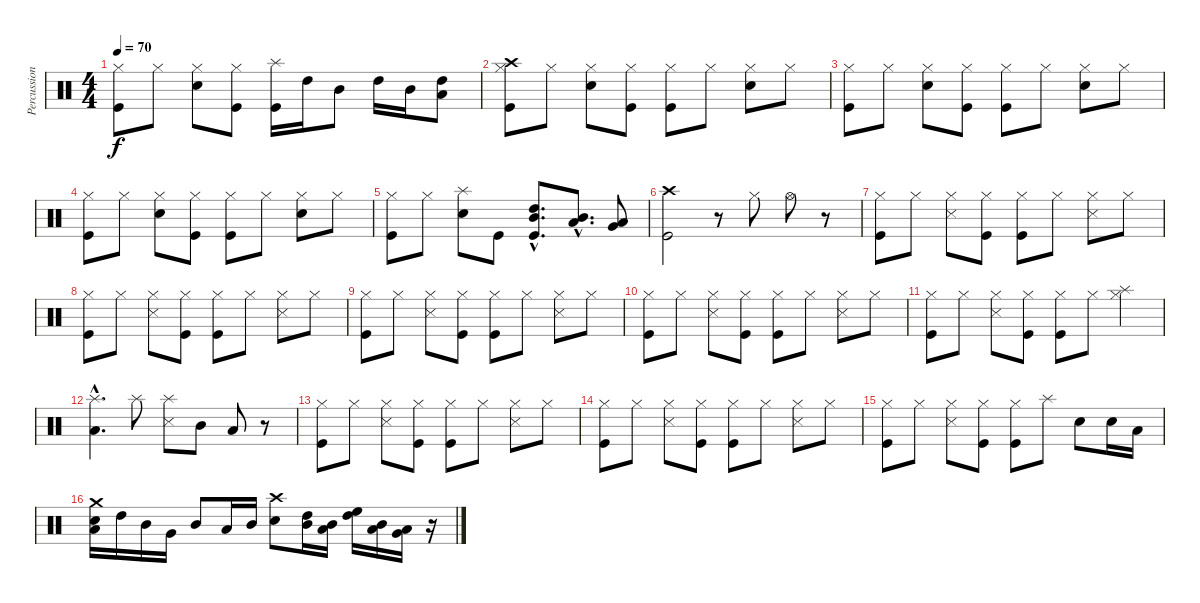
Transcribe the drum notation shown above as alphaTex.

\track ("Percussions" "Percussion") {instrument percussion}
\staff {score}
\articulation defaults
\ts (4 4)
\tempo 70
\clef neutral
\ks c
("Kick (hit)" "Hi-Hat (closed)").8{dy f} "Hi-Hat (closed)".8 ("Snare (hit) 2" "Hi-Hat (closed)").8 ("Kick (hit)" "Hi-Hat (closed)").8 ("Kick (hit)" "Splash (hit)").16 "High Tom (hit)".16 "Mid Tom (hit)".8 "High Tom (hit)".16 "Mid Tom (hit)".16 ("Low Tom (hit)" "High Tom (hit)").8 |
("Kick (hit)" "Hi-Hat (closed)" "Crash high (hit)").8 "Hi-Hat (closed)".8 ("Snare (hit) 2" "Hi-Hat (closed)").8 ("Kick (hit)" "Hi-Hat (closed)").8 ("Kick (hit)" "Hi-Hat (closed)").8 "Hi-Hat (closed)".8 ("Snare (hit) 2" "Hi-Hat (closed)").8 "Hi-Hat (closed)".8 |
("Kick (hit)" "Hi-Hat (closed)").8 "Hi-Hat (closed)".8 ("Snare (hit) 2" "Hi-Hat (closed)").8 ("Kick (hit)" "Hi-Hat (closed)").8 ("Kick (hit)" "Hi-Hat (closed)").8 "Hi-Hat (closed)".8 ("Snare (hit) 2" "Hi-Hat (closed)").8 "Hi-Hat (closed)".8 |
("Kick (hit)" "Hi-Hat (closed)").8 "Hi-Hat (closed)".8 ("Snare (hit) 2" "Hi-Hat (closed)").8 ("Kick (hit)" "Hi-Hat (closed)").8 ("Kick (hit)" "Hi-Hat (closed)").8 "Hi-Hat (closed)".8 ("Snare (hit) 2" "Hi-Hat (closed)").8 "Hi-Hat (closed)".8 |
("Kick (hit)" "Hi-Hat (closed)").8 "Hi-Hat (closed)".8 ("Snare (hit) 2" "Splash (hit)").8 "Kick (hit)".8 ("Kick (hit)"{hac} "Mid Tom (hit)"{hac} "High Tom (hit)"{hac}).8{d} ("Low Tom (hit)"{hac} "Mid Tom (hit)"{hac}).8{d} ("Low Floor Tom (hit)" "Very Low Tom (hit)").8 |
("Kick (hit)" "Crash high (hit)").2 r.8 "Hi-Hat (closed)".8 "Hi-Hat (open)".8 r.8 |
("Kick (hit)" "Hi-Hat (closed)").8 "Hi-Hat (closed)".8 ("Snare (side stick) 3" "Hi-Hat (closed)").8 ("Kick (hit)" "Hi-Hat (closed)").8 ("Kick (hit)" "Hi-Hat (closed)").8 "Hi-Hat (closed)".8 ("Snare (side stick) 3" "Hi-Hat (closed)").8 "Hi-Hat (closed)".8 |
("Kick (hit)" "Hi-Hat (closed)").8 "Hi-Hat (closed)".8 ("Snare (side stick) 3" "Hi-Hat (closed)").8 ("Kick (hit)" "Hi-Hat (closed)").8 ("Kick (hit)" "Hi-Hat (closed)").8 "Hi-Hat (closed)".8 ("Snare (side stick) 3" "Hi-Hat (closed)").8 "Hi-Hat (closed)".8 |
("Kick (hit)" "Hi-Hat (closed)").8 "Hi-Hat (closed)".8 ("Snare (side stick) 3" "Hi-Hat (closed)").8 ("Kick (hit)" "Hi-Hat (closed)").8 ("Kick (hit)" "Hi-Hat (closed)").8 "Hi-Hat (closed)".8 ("Snare (side stick) 3" "Hi-Hat (closed)").8 "Hi-Hat (closed)".8 |
("Kick (hit)" "Hi-Hat (closed)").8 "Hi-Hat (closed)".8 ("Snare (side stick) 3" "Hi-Hat (closed)").8 ("Kick (hit)" "Hi-Hat (closed)").8 ("Kick (hit)" "Hi-Hat (closed)").8 "Hi-Hat (closed)".8 ("Snare (side stick) 3" "Hi-Hat (closed)").8 "Hi-Hat (closed)".8 |
("Kick (hit)" "Hi-Hat (closed)").8 "Hi-Hat (closed)".8 ("Snare (side stick) 3" "Hi-Hat (closed)").8 ("Kick (hit)" "Hi-Hat (closed)").8 ("Kick (hit)" "Hi-Hat (closed)").8 "Hi-Hat (closed)".8 ("Hi-Hat (closed)" "Splash (hit)").4 |
("Low Floor Tom (hit)"{hac} "Splash (hit)"{hac}).4{d volume 6} "Splash (hit)".8{volume 16} ("Snare (side stick) 3" "Splash (hit)").8{volume 16} "Mid Tom (hit)".8{volume 16} "Low Tom (hit)".8{volume 16} r.8 |
("Kick (hit)" "Hi-Hat (closed)").8 "Hi-Hat (closed)".8 ("Snare (side stick) 3" "Hi-Hat (closed)").8 ("Kick (hit)" "Hi-Hat (closed)").8 ("Kick (hit)" "Hi-Hat (closed)").8 "Hi-Hat (closed)".8 ("Snare (side stick) 3" "Hi-Hat (closed)").8 "Hi-Hat (closed)".8 |
("Kick (hit)" "Hi-Hat (closed)").8 "Hi-Hat (closed)".8 ("Snare (side stick) 3" "Hi-Hat (closed)").8 ("Kick (hit)" "Hi-Hat (closed)").8 ("Kick (hit)" "Hi-Hat (closed)").8 "Hi-Hat (closed)".8 ("Snare (side stick) 3" "Hi-Hat (closed)").8 "Hi-Hat (closed)".8 |
("Kick (hit)" "Hi-Hat (closed)").8 "Hi-Hat (closed)".8 ("Snare (side stick) 3" "Hi-Hat (closed)").8 ("Kick (hit)" "Hi-Hat (closed)").8 ("Kick (hit)" "Hi-Hat (closed)").8 "Splash (hit)".8 "Electric Snare (hit)".8 "Snare (hit) 2".16 "Low Tom (hit)".16 |
("Crash medium (hit)" "Snare (hit) 2" "Low Floor Tom (hit)").16 "High Tom (hit)".16 "Mid Tom (hit)".16 "Very Low Tom (hit)".16 "Mid Tom (hit)".8 "Low Tom (hit)".16 "Mid Tom (hit)".16 ("Crash high (hit)" "Snare (hit) 2").8 ("Mid Tom (hit)" "High Tom (hit)").16 ("Mid Tom (hit)" "Low Tom (hit)").16 ("High Floor Tom (hit)" "High Tom (hit)").16 ("Mid Tom (hit)" "Low Tom (hit)").16 ("Very Low Tom (hit)" "Low Floor Tom (hit)").16 r.16
